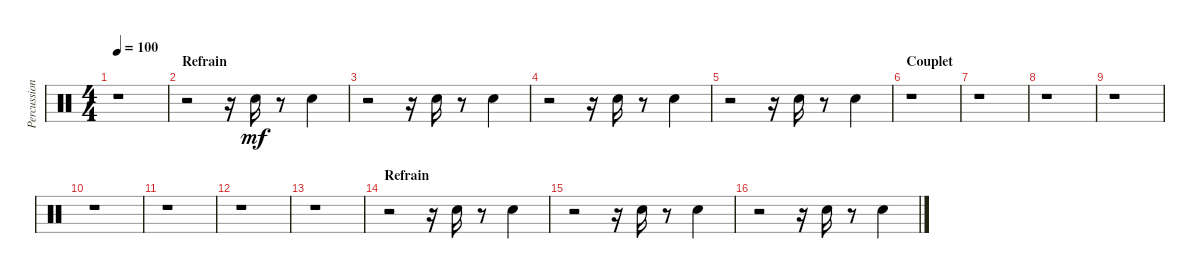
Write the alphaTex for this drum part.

\track ("Percussions" "Percussion") {instrument percussion}
\staff {score}
\articulation defaults
\ts (4 4)
\tempo 100
\clef neutral
\ks c
r.1{dy p} |
\section ("" "Refrain")
r.2 r.16 "Hand Clap (hit)".16{dy mf} r.8 "Hand Clap (hit)".4 |
r.2 r.16 "Hand Clap (hit)".16 r.8 "Hand Clap (hit)".4 |
r.2 r.16 "Hand Clap (hit)".16 r.8 "Hand Clap (hit)".4 |
r.2 r.16 "Hand Clap (hit)".16 r.8 "Hand Clap (hit)".4 |
\section ("" "Couplet")
r.1 |
r.1 |
r.1 |
r.1 |
r.1 |
r.1 |
r.1 |
r.1 |
\section ("" "Refrain")
r.2 r.16 "Hand Clap (hit)".16 r.8 "Hand Clap (hit)".4 |
r.2 r.16 "Hand Clap (hit)".16 r.8 "Hand Clap (hit)".4 |
r.2 r.16 "Hand Clap (hit)".16 r.8 "Hand Clap (hit)".4
